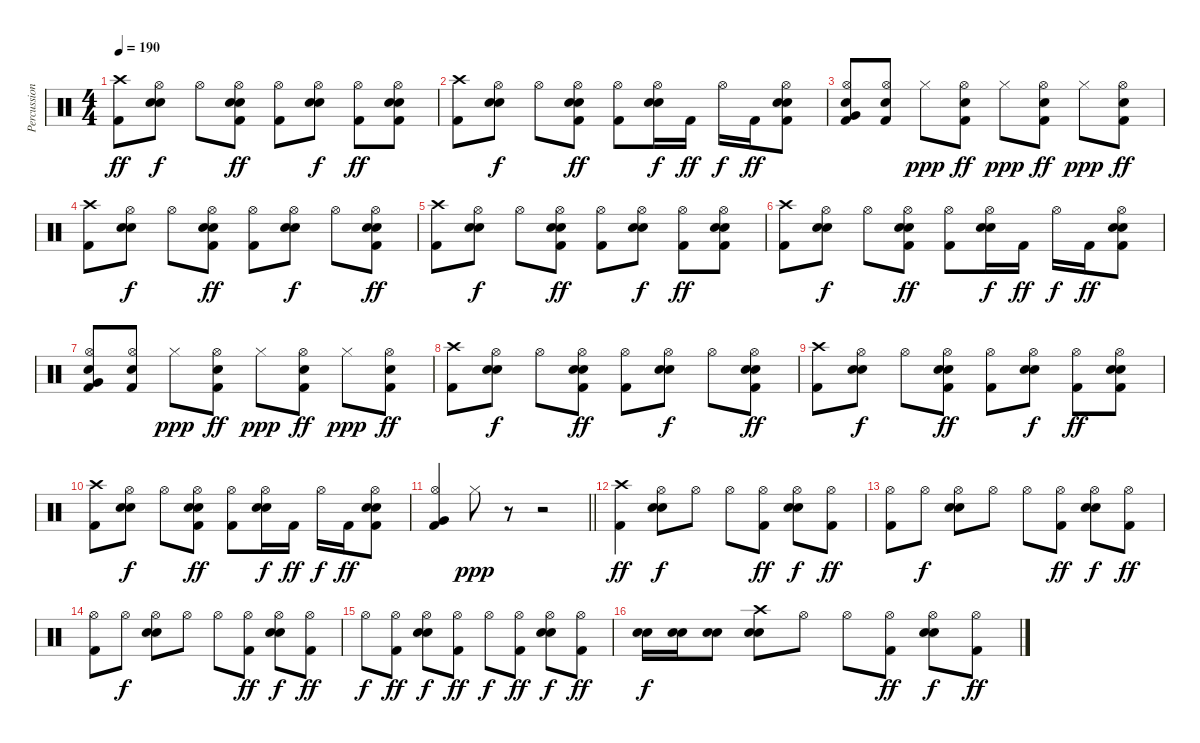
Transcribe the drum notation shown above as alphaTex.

\track ("Percussion" "Percussion") {instrument percussion}
\staff {score}
\articulation defaults
\ts (4 4)
\tempo 190
\clef neutral
\ks c
("Crash high (hit)" "Kick (hit) 2").8{dy ff} ("Hi-Hat (open)" "Electric Snare (hit)" "Snare (hit) 2").8{dy f} "Hi-Hat (open)".8 ("Hi-Hat (open)" "Electric Snare (hit)" "Snare (hit) 2" "Kick (hit) 2").8{dy ff} ("Hi-Hat (open)" "Kick (hit) 2").8 ("Hi-Hat (open)" "Electric Snare (hit)" "Snare (hit) 2").8{dy f} ("Hi-Hat (open)" "Kick (hit) 2").8{dy ff} ("Hi-Hat (open)" "Electric Snare (hit)" "Snare (hit) 2" "Kick (hit) 2").8 |
("Crash high (hit)" "Kick (hit) 2").8 ("Hi-Hat (open)" "Electric Snare (hit)" "Snare (hit) 2").8{dy f} "Hi-Hat (open)".8 ("Hi-Hat (open)" "Electric Snare (hit)" "Snare (hit) 2" "Kick (hit) 2").8{dy ff} ("Hi-Hat (open)" "Kick (hit) 2").8 ("Hi-Hat (open)" "Electric Snare (hit)" "Snare (hit) 2").16{dy f} "Kick (hit) 2".16{dy ff} "Hi-Hat (open)".16{dy f} "Kick (hit) 2".16{dy ff} ("Hi-Hat (open)" "Electric Snare (hit)" "Snare (hit) 2" "Kick (hit) 2").8 |
("Hi-Hat (open)" "Electric Snare (hit)" "Very Low Tom (hit)" "Kick (hit) 2").8 ("Hi-Hat (open)" "Snare (hit) 2" "Kick (hit) 2").8 "Hi-Hat (closed)".8{dy ppp} ("Hi-Hat (open)" "Snare (hit) 2" "Kick (hit) 2").8{dy ff} "Hi-Hat (closed)".8{dy ppp} ("Hi-Hat (open)" "Snare (hit) 2" "Kick (hit) 2").8{dy ff} "Hi-Hat (closed)".8{dy ppp} ("Hi-Hat (open)" "Snare (hit) 2" "Kick (hit) 2").8{dy ff} |
("Crash high (hit)" "Kick (hit) 2").8 ("Hi-Hat (open)" "Electric Snare (hit)" "Snare (hit) 2").8{dy f} "Hi-Hat (open)".8 ("Hi-Hat (open)" "Electric Snare (hit)" "Snare (hit) 2" "Kick (hit) 2").8{dy ff} ("Hi-Hat (open)" "Kick (hit) 2").8 ("Hi-Hat (open)" "Electric Snare (hit)" "Snare (hit) 2").8{dy f} "Hi-Hat (open)".8 ("Hi-Hat (open)" "Electric Snare (hit)" "Snare (hit) 2" "Kick (hit) 2").8{dy ff} |
("Crash high (hit)" "Kick (hit) 2").8 ("Hi-Hat (open)" "Electric Snare (hit)" "Snare (hit) 2").8{dy f} "Hi-Hat (open)".8 ("Hi-Hat (open)" "Electric Snare (hit)" "Snare (hit) 2" "Kick (hit) 2").8{dy ff} ("Hi-Hat (open)" "Kick (hit) 2").8 ("Hi-Hat (open)" "Electric Snare (hit)" "Snare (hit) 2").8{dy f} ("Hi-Hat (open)" "Kick (hit) 2").8{dy ff} ("Hi-Hat (open)" "Electric Snare (hit)" "Snare (hit) 2" "Kick (hit) 2").8 |
("Crash high (hit)" "Kick (hit) 2").8 ("Hi-Hat (open)" "Electric Snare (hit)" "Snare (hit) 2").8{dy f} "Hi-Hat (open)".8 ("Hi-Hat (open)" "Electric Snare (hit)" "Snare (hit) 2" "Kick (hit) 2").8{dy ff} ("Hi-Hat (open)" "Kick (hit) 2").8 ("Hi-Hat (open)" "Electric Snare (hit)" "Snare (hit) 2").16{dy f} "Kick (hit) 2".16{dy ff} "Hi-Hat (open)".16{dy f} "Kick (hit) 2".16{dy ff} ("Hi-Hat (open)" "Electric Snare (hit)" "Snare (hit) 2" "Kick (hit) 2").8 |
("Hi-Hat (open)" "Electric Snare (hit)" "Very Low Tom (hit)" "Kick (hit) 2").8 ("Hi-Hat (open)" "Snare (hit) 2" "Kick (hit) 2").8 "Hi-Hat (closed)".8{dy ppp} ("Hi-Hat (open)" "Snare (hit) 2" "Kick (hit) 2").8{dy ff} "Hi-Hat (closed)".8{dy ppp} ("Hi-Hat (open)" "Snare (hit) 2" "Kick (hit) 2").8{dy ff} "Hi-Hat (closed)".8{dy ppp} ("Hi-Hat (open)" "Snare (hit) 2" "Kick (hit) 2").8{dy ff} |
("Crash high (hit)" "Kick (hit) 2").8 ("Hi-Hat (open)" "Electric Snare (hit)" "Snare (hit) 2").8{dy f} "Hi-Hat (open)".8 ("Hi-Hat (open)" "Electric Snare (hit)" "Snare (hit) 2" "Kick (hit) 2").8{dy ff} ("Hi-Hat (open)" "Kick (hit) 2").8 ("Hi-Hat (open)" "Electric Snare (hit)" "Snare (hit) 2").8{dy f} "Hi-Hat (open)".8 ("Hi-Hat (open)" "Electric Snare (hit)" "Snare (hit) 2" "Kick (hit) 2").8{dy ff} |
("Crash high (hit)" "Kick (hit) 2").8 ("Hi-Hat (open)" "Electric Snare (hit)" "Snare (hit) 2").8{dy f} "Hi-Hat (open)".8 ("Hi-Hat (open)" "Electric Snare (hit)" "Snare (hit) 2" "Kick (hit) 2").8{dy ff} ("Hi-Hat (open)" "Kick (hit) 2").8 ("Hi-Hat (open)" "Electric Snare (hit)" "Snare (hit) 2").8{dy f} ("Hi-Hat (open)" "Kick (hit) 2").8{dy ff} ("Hi-Hat (open)" "Electric Snare (hit)" "Snare (hit) 2" "Kick (hit) 2").8 |
("Crash high (hit)" "Kick (hit) 2").8 ("Hi-Hat (open)" "Electric Snare (hit)" "Snare (hit) 2").8{dy f} "Hi-Hat (open)".8 ("Hi-Hat (open)" "Electric Snare (hit)" "Snare (hit) 2" "Kick (hit) 2").8{dy ff} ("Hi-Hat (open)" "Kick (hit) 2").8 ("Hi-Hat (open)" "Electric Snare (hit)" "Snare (hit) 2").16{dy f} "Kick (hit) 2".16{dy ff} "Hi-Hat (open)".16{dy f} "Kick (hit) 2".16{dy ff} ("Hi-Hat (open)" "Electric Snare (hit)" "Snare (hit) 2" "Kick (hit) 2").8 |
\barLineRight lightlight
("Hi-Hat (open)" "Very Low Tom (hit)" "Kick (hit) 2").4 "Hi-Hat (closed)".8{dy ppp} r.8 r.2 |
\section ("" "")
("Crash high (hit)" "Kick (hit) 2").4{dy ff} ("Hi-Hat (open)" "Electric Snare (hit)" "Snare (hit) 2").8{dy f} "Hi-Hat (open)".8 "Hi-Hat (open)".8 ("Hi-Hat (open)" "Kick (hit) 2").8{dy ff} ("Hi-Hat (open)" "Electric Snare (hit)" "Snare (hit) 2").8{dy f} ("Hi-Hat (open)" "Kick (hit) 2").8{dy ff} |
("Hi-Hat (open)" "Kick (hit) 2").8 "Hi-Hat (open)".8{dy f} ("Hi-Hat (open)" "Electric Snare (hit)" "Snare (hit) 2").8 "Hi-Hat (open)".8 "Hi-Hat (open)".8 ("Hi-Hat (open)" "Kick (hit) 2").8{dy ff} ("Hi-Hat (open)" "Electric Snare (hit)" "Snare (hit) 2").8{dy f} ("Hi-Hat (open)" "Kick (hit) 2").8{dy ff} |
("Hi-Hat (open)" "Kick (hit) 2").8 "Hi-Hat (open)".8{dy f} ("Hi-Hat (open)" "Electric Snare (hit)" "Snare (hit) 2").8 "Hi-Hat (open)".8 "Hi-Hat (open)".8 ("Hi-Hat (open)" "Kick (hit) 2").8{dy ff} ("Hi-Hat (open)" "Electric Snare (hit)" "Snare (hit) 2").8{dy f} ("Hi-Hat (open)" "Kick (hit) 2").8{dy ff} |
"Hi-Hat (open)".8{dy f} ("Hi-Hat (open)" "Kick (hit) 2").8{dy ff} ("Hi-Hat (open)" "Electric Snare (hit)" "Snare (hit) 2").8{dy f} ("Hi-Hat (open)" "Kick (hit) 2").8{dy ff} "Hi-Hat (open)".8{dy f} ("Hi-Hat (open)" "Kick (hit) 2").8{dy ff} ("Hi-Hat (open)" "Electric Snare (hit)" "Snare (hit) 2").8{dy f} ("Hi-Hat (open)" "Kick (hit) 2").8{dy ff} |
("Electric Snare (hit)" "Snare (hit) 2").16{dy f} ("Electric Snare (hit)" "Snare (hit) 2").16 ("Electric Snare (hit)" "Snare (hit) 2").8 ("Crash high (hit)" "Electric Snare (hit)" "Snare (hit) 2").8 "Hi-Hat (open)".8 "Hi-Hat (open)".8 ("Hi-Hat (open)" "Kick (hit) 2").8{dy ff} ("Hi-Hat (open)" "Electric Snare (hit)" "Snare (hit) 2").8{dy f} ("Hi-Hat (open)" "Kick (hit) 2").8{dy ff}
